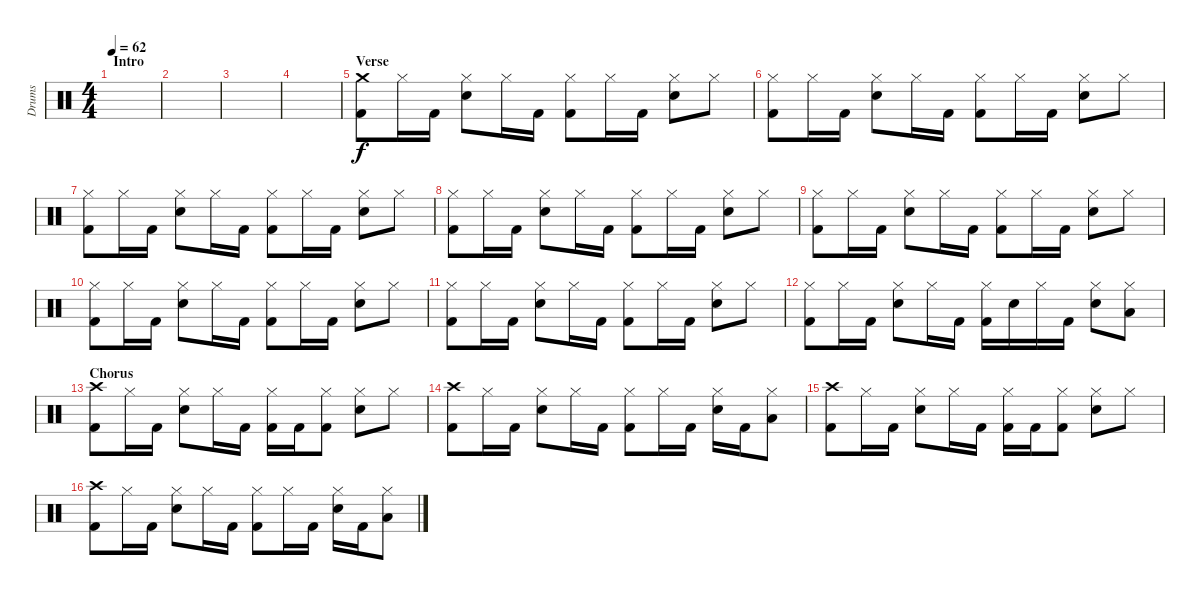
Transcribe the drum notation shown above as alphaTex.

\track ("Drums" "Drums") {instrument percussion}
\staff {score}
\articulation defaults
\ts (4 4)
\section ("" "Intro")
\tempo 62
\clef neutral
\ks c
|
|
|
|
\section ("" "Verse")
("Crash medium (hit)" "Kick (hit) 2").8 "Hi-Hat (closed)".16 "Kick (hit) 2".16 ("Hi-Hat (closed)" "Snare (hit) 2").8 "Hi-Hat (closed)".16 "Kick (hit) 2".16 ("Hi-Hat (closed)" "Kick (hit) 2").8 "Hi-Hat (closed)".16 "Kick (hit) 2".16 ("Hi-Hat (closed)" "Snare (hit) 2").8 "Hi-Hat (closed)".8 |
("Hi-Hat (closed)" "Kick (hit) 2").8 "Hi-Hat (closed)".16 "Kick (hit) 2".16 ("Hi-Hat (closed)" "Snare (hit) 2").8 "Hi-Hat (closed)".16 "Kick (hit) 2".16 ("Hi-Hat (closed)" "Kick (hit) 2").8 "Hi-Hat (closed)".16 "Kick (hit) 2".16 ("Hi-Hat (closed)" "Snare (hit) 2").8 "Hi-Hat (closed)".8 |
("Hi-Hat (closed)" "Kick (hit) 2").8 "Hi-Hat (closed)".16 "Kick (hit) 2".16 ("Hi-Hat (closed)" "Snare (hit) 2").8 "Hi-Hat (closed)".16 "Kick (hit) 2".16 ("Hi-Hat (closed)" "Kick (hit) 2").8 "Hi-Hat (closed)".16 "Kick (hit) 2".16 ("Hi-Hat (closed)" "Snare (hit) 2").8 "Hi-Hat (closed)".8 |
("Hi-Hat (closed)" "Kick (hit) 2").8 "Hi-Hat (closed)".16 "Kick (hit) 2".16 ("Hi-Hat (closed)" "Snare (hit) 2").8 "Hi-Hat (closed)".16 "Kick (hit) 2".16 ("Hi-Hat (closed)" "Kick (hit) 2").8 "Hi-Hat (closed)".16 "Kick (hit) 2".16 ("Hi-Hat (closed)" "Snare (hit) 2").8 "Hi-Hat (closed)".8 |
("Hi-Hat (closed)" "Kick (hit) 2").8 "Hi-Hat (closed)".16 "Kick (hit) 2".16 ("Hi-Hat (closed)" "Snare (hit) 2").8 "Hi-Hat (closed)".16 "Kick (hit) 2".16 ("Hi-Hat (closed)" "Kick (hit) 2").8 "Hi-Hat (closed)".16 "Kick (hit) 2".16 ("Hi-Hat (closed)" "Snare (hit) 2").8 "Hi-Hat (closed)".8 |
("Hi-Hat (closed)" "Kick (hit) 2").8 "Hi-Hat (closed)".16 "Kick (hit) 2".16 ("Hi-Hat (closed)" "Snare (hit) 2").8 "Hi-Hat (closed)".16 "Kick (hit) 2".16 ("Hi-Hat (closed)" "Kick (hit) 2").8 "Hi-Hat (closed)".16 "Kick (hit) 2".16 ("Hi-Hat (closed)" "Snare (hit) 2").8 "Hi-Hat (closed)".8 |
("Hi-Hat (closed)" "Kick (hit) 2").8 "Hi-Hat (closed)".16 "Kick (hit) 2".16 ("Hi-Hat (closed)" "Snare (hit) 2").8 "Hi-Hat (closed)".16 "Kick (hit) 2".16 ("Hi-Hat (closed)" "Kick (hit) 2").8 "Hi-Hat (closed)".16 "Kick (hit) 2".16 ("Hi-Hat (closed)" "Snare (hit) 2").8 "Hi-Hat (closed)".8 |
("Hi-Hat (closed)" "Kick (hit) 2").8 "Hi-Hat (closed)".16 "Kick (hit) 2".16 ("Hi-Hat (closed)" "Snare (hit) 2").8 "Hi-Hat (closed)".16 "Kick (hit) 2".16 ("Hi-Hat (closed)" "Kick (hit) 2").16 "Snare (hit) 2".16 "Hi-Hat (closed)".16 "Kick (hit) 2".16 ("Hi-Hat (closed)" "Snare (hit) 2").8 ("Hi-Hat (closed)" "Low Floor Tom (hit)").8 |
\section ("" "Chorus")
("Crash high (hit)" "Kick (hit) 2").8 "Hi-Hat (closed)".16 "Kick (hit) 2".16 ("Hi-Hat (closed)" "Snare (hit) 2").8 "Hi-Hat (closed)".16 "Kick (hit) 2".16 ("Hi-Hat (closed)" "Kick (hit) 2").16 "Kick (hit) 2".16 ("Hi-Hat (closed)" "Kick (hit) 2").8 ("Hi-Hat (closed)" "Snare (hit) 2").8 "Hi-Hat (closed)".8 |
("Crash high (hit)" "Kick (hit) 2").8 "Hi-Hat (closed)".16 "Kick (hit) 2".16 ("Hi-Hat (closed)" "Snare (hit) 2").8 "Hi-Hat (closed)".16 "Kick (hit) 2".16 ("Hi-Hat (closed)" "Kick (hit) 2").8 "Hi-Hat (closed)".16 "Kick (hit) 2".16 ("Hi-Hat (closed)" "Snare (hit) 2").16 "Kick (hit) 2".16 ("Hi-Hat (closed)" "Low Floor Tom (hit)").8 |
("Crash high (hit)" "Kick (hit) 2").8 "Hi-Hat (closed)".16 "Kick (hit) 2".16 ("Hi-Hat (closed)" "Snare (hit) 2").8 "Hi-Hat (closed)".16 "Kick (hit) 2".16 ("Hi-Hat (closed)" "Kick (hit) 2").16 "Kick (hit) 2".16 ("Hi-Hat (closed)" "Kick (hit) 2").8 ("Hi-Hat (closed)" "Snare (hit) 2").8 "Hi-Hat (closed)".8 |
("Crash high (hit)" "Kick (hit) 2").8 "Hi-Hat (closed)".16 "Kick (hit) 2".16 ("Hi-Hat (closed)" "Snare (hit) 2").8 "Hi-Hat (closed)".16 "Kick (hit) 2".16 ("Hi-Hat (closed)" "Kick (hit) 2").8 "Hi-Hat (closed)".16 "Kick (hit) 2".16 ("Hi-Hat (closed)" "Snare (hit) 2").16 "Kick (hit) 2".16 ("Hi-Hat (closed)" "Low Floor Tom (hit)").8
